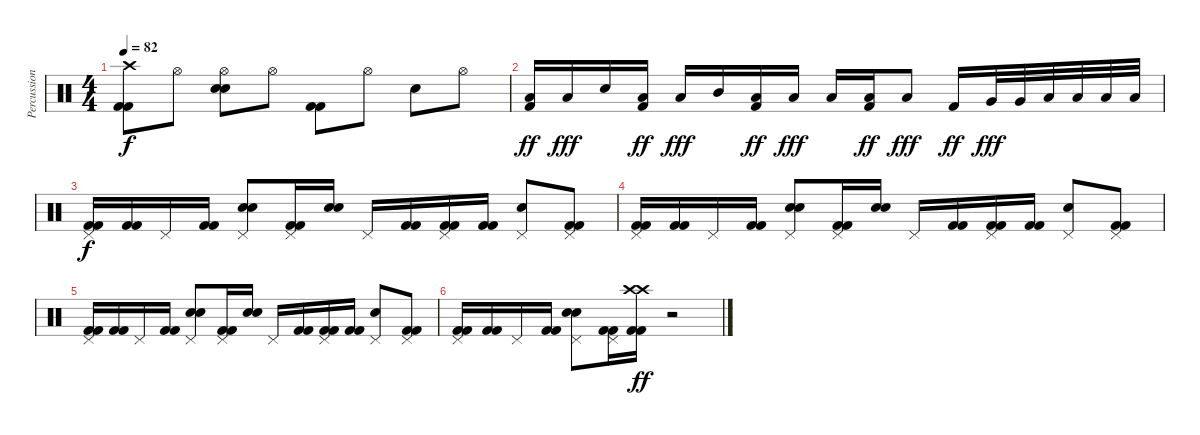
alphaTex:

\track ("Percussion" "Percussion") {instrument percussion}
\staff {score}
\articulation defaults
\ts (4 4)
\tempo 82
\clef neutral
\ks c
("Crash high (hit)" "Kick (hit) 2" "Kick (hit) 2").8{dy f} "Hi-Hat (open)".8 ("Hi-Hat (open)" "Electric Snare (hit)" "Electric Snare (hit)").8 "Hi-Hat (open)".8 ("Kick (hit) 2" "Kick (hit) 2").8 "Hi-Hat (open)".8 "Electric Snare (hit)".8 "Hi-Hat (open)".8 |
("Low Floor Tom (hit)" "Kick (hit) 2").16{dy ff} "Low Floor Tom (hit)".16{dy fff} "Electric Snare (hit)".16 ("Low Floor Tom (hit)" "Kick (hit) 2").16{dy ff} "Low Floor Tom (hit)".16{dy fff} "Mid Tom (hit)".16 ("Low Floor Tom (hit)" "Kick (hit) 2").16{dy ff} "Low Floor Tom (hit)".16{dy fff} "Low Tom (hit)".16 ("Low Floor Tom (hit)" "Kick (hit) 2").16{dy ff} "Low Floor Tom (hit)".8{dy fff} "Kick (hit) 2".16{dy ff} "Very Low Tom (hit)".32{dy fff} "Very Low Tom (hit)".32 "Low Floor Tom (hit)".32 "Low Floor Tom (hit)".32 "Low Floor Tom (hit)".32 "Low Floor Tom (hit)".32 |
("Pedal Hi-Hat (hit)" "Kick (hit) 2" "Kick (hit) 2").16{dy f} ("Kick (hit) 2" "Kick (hit) 2").16 "Pedal Hi-Hat (hit)".16 ("Kick (hit) 2" "Kick (hit) 2").16 ("Pedal Hi-Hat (hit)" "Electric Snare (hit)" "Electric Snare (hit)").8 ("Pedal Hi-Hat (hit)" "Kick (hit) 2" "Kick (hit) 2").16 ("Electric Snare (hit)" "Electric Snare (hit)").16 "Pedal Hi-Hat (hit)".16 ("Kick (hit) 2" "Kick (hit) 2").16 ("Pedal Hi-Hat (hit)" "Kick (hit) 2" "Kick (hit) 2").16 ("Kick (hit) 2" "Kick (hit) 2").16 ("Pedal Hi-Hat (hit)" "Electric Snare (hit)").8 ("Pedal Hi-Hat (hit)" "Kick (hit) 2" "Kick (hit) 2").8 |
("Pedal Hi-Hat (hit)" "Kick (hit) 2" "Kick (hit) 2").16 ("Kick (hit) 2" "Kick (hit) 2").16 "Pedal Hi-Hat (hit)".16 ("Kick (hit) 2" "Kick (hit) 2").16 ("Pedal Hi-Hat (hit)" "Electric Snare (hit)" "Electric Snare (hit)").8 ("Pedal Hi-Hat (hit)" "Kick (hit) 2" "Kick (hit) 2").16 ("Electric Snare (hit)" "Electric Snare (hit)").16 "Pedal Hi-Hat (hit)".16 ("Kick (hit) 2" "Kick (hit) 2").16 ("Pedal Hi-Hat (hit)" "Kick (hit) 2" "Kick (hit) 2").16 ("Kick (hit) 2" "Kick (hit) 2").16 ("Pedal Hi-Hat (hit)" "Electric Snare (hit)").8 ("Pedal Hi-Hat (hit)" "Kick (hit) 2" "Kick (hit) 2").8 |
("Pedal Hi-Hat (hit)" "Kick (hit) 2" "Kick (hit) 2").16 ("Kick (hit) 2" "Kick (hit) 2").16 "Pedal Hi-Hat (hit)".16 ("Kick (hit) 2" "Kick (hit) 2").16 ("Pedal Hi-Hat (hit)" "Electric Snare (hit)" "Electric Snare (hit)").8 ("Pedal Hi-Hat (hit)" "Kick (hit) 2" "Kick (hit) 2").16 ("Electric Snare (hit)" "Electric Snare (hit)").16 "Pedal Hi-Hat (hit)".16 ("Kick (hit) 2" "Kick (hit) 2").16 ("Pedal Hi-Hat (hit)" "Kick (hit) 2" "Kick (hit) 2").16 ("Kick (hit) 2" "Kick (hit) 2").16 ("Pedal Hi-Hat (hit)" "Electric Snare (hit)").8 ("Pedal Hi-Hat (hit)" "Kick (hit) 2" "Kick (hit) 2").8 |
("Pedal Hi-Hat (hit)" "Kick (hit) 2" "Kick (hit) 2").16 ("Kick (hit) 2" "Kick (hit) 2").16 "Pedal Hi-Hat (hit)".16 ("Kick (hit) 2" "Kick (hit) 2").16 ("Pedal Hi-Hat (hit)" "Electric Snare (hit)" "Electric Snare (hit)").8 ("Pedal Hi-Hat (hit)" "Kick (hit) 2" "Kick (hit) 2").16 ("Crash high (hit)" "Crash high (hit)" "Kick (hit) 2" "Kick (hit) 2").16{dy ff} r.2
